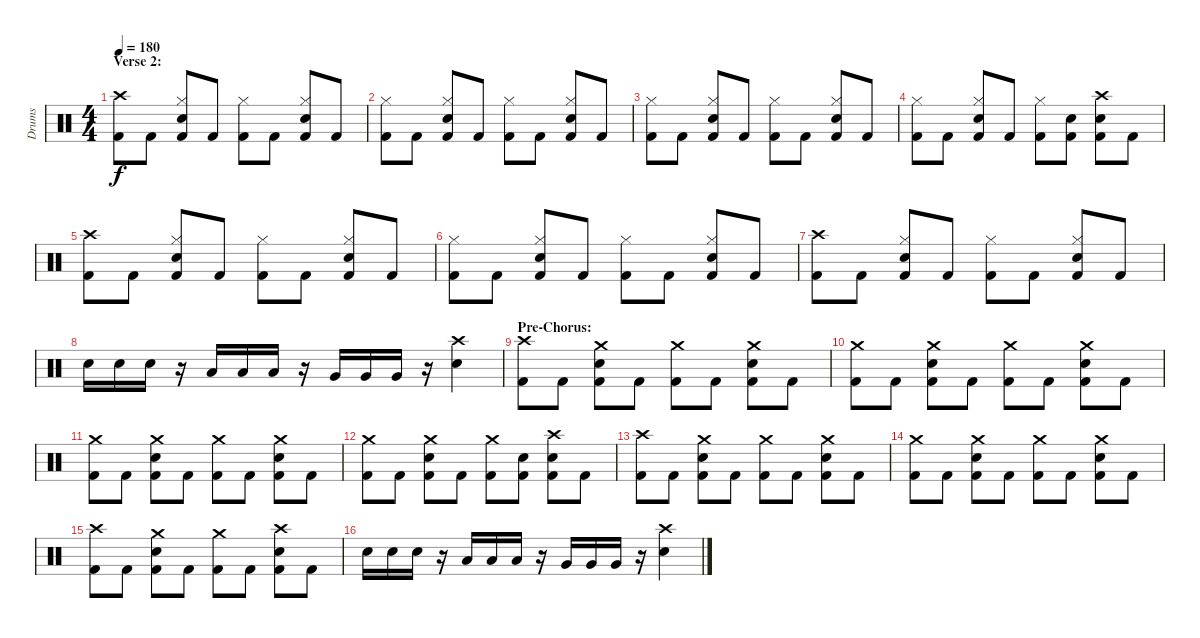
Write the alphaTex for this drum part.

\track ("Drums" "Drums") {instrument percussion}
\staff {score}
\articulation defaults
\ts (4 4)
\section ("" "Verse 2:")
\tempo 180
\clef neutral
\ks c
("Crash high (hit)" "Kick (hit) 2").8{dy f} "Kick (hit) 2".8 ("Hi-Hat (closed)" "Electric Snare (hit)" "Kick (hit) 2").8 "Kick (hit) 2".8 ("Hi-Hat (closed)" "Kick (hit) 2").8 "Kick (hit) 2".8 ("Hi-Hat (closed)" "Electric Snare (hit)" "Kick (hit) 2").8 "Kick (hit) 2".8 |
("Hi-Hat (closed)" "Kick (hit) 2").8 "Kick (hit) 2".8 ("Hi-Hat (closed)" "Electric Snare (hit)" "Kick (hit) 2").8 "Kick (hit) 2".8 ("Hi-Hat (closed)" "Kick (hit) 2").8 "Kick (hit) 2".8 ("Hi-Hat (closed)" "Electric Snare (hit)" "Kick (hit) 2").8 "Kick (hit) 2".8 |
("Hi-Hat (closed)" "Kick (hit) 2").8 "Kick (hit) 2".8 ("Hi-Hat (closed)" "Electric Snare (hit)" "Kick (hit) 2").8 "Kick (hit) 2".8 ("Hi-Hat (closed)" "Kick (hit) 2").8 "Kick (hit) 2".8 ("Hi-Hat (closed)" "Electric Snare (hit)" "Kick (hit) 2").8 "Kick (hit) 2".8 |
("Hi-Hat (closed)" "Kick (hit) 2").8 "Kick (hit) 2".8 ("Hi-Hat (closed)" "Electric Snare (hit)" "Kick (hit) 2").8 "Kick (hit) 2".8 ("Hi-Hat (closed)" "Kick (hit) 2").8 ("Electric Snare (hit)" "Kick (hit) 2").8 ("Crash high (hit)" "Electric Snare (hit)" "Kick (hit) 2").8 "Kick (hit) 2".8 |
("Crash high (hit)" "Kick (hit) 2").8 "Kick (hit) 2".8 ("Hi-Hat (closed)" "Electric Snare (hit)" "Kick (hit) 2").8 "Kick (hit) 2".8 ("Hi-Hat (closed)" "Kick (hit) 2").8 "Kick (hit) 2".8 ("Hi-Hat (closed)" "Electric Snare (hit)" "Kick (hit) 2").8 "Kick (hit) 2".8 |
("Hi-Hat (closed)" "Kick (hit) 2").8 "Kick (hit) 2".8 ("Hi-Hat (closed)" "Electric Snare (hit)" "Kick (hit) 2").8 "Kick (hit) 2".8 ("Hi-Hat (closed)" "Kick (hit) 2").8 "Kick (hit) 2".8 ("Hi-Hat (closed)" "Electric Snare (hit)" "Kick (hit) 2").8 "Kick (hit) 2".8 |
("Crash high (hit)" "Kick (hit) 2").8 "Kick (hit) 2".8 ("Hi-Hat (closed)" "Electric Snare (hit)" "Kick (hit) 2").8 "Kick (hit) 2".8 ("Hi-Hat (closed)" "Kick (hit) 2").8 "Kick (hit) 2".8 ("Hi-Hat (closed)" "Electric Snare (hit)" "Kick (hit) 2").8 "Kick (hit) 2".8 |
"Electric Snare (hit)".16 "Electric Snare (hit)".16 "Electric Snare (hit)".16 r.16 "Low Tom (hit)".16 "Low Tom (hit)".16 "Low Tom (hit)".16 r.16 "Very Low Tom (hit)".16 "Very Low Tom (hit)".16 "Very Low Tom (hit)".16 r.16 ("Crash high (hit)" "Electric Snare (hit)").4 |
\section ("" "Pre-Chorus:")
("Crash high (hit)" "Kick (hit) 2").8 "Kick (hit) 2".8 ("Crash medium (hit)" "Electric Snare (hit)" "Kick (hit) 2").8 "Kick (hit) 2".8 ("Crash medium (hit)" "Kick (hit) 2").8 "Kick (hit) 2".8 ("Crash medium (hit)" "Electric Snare (hit)" "Kick (hit) 2").8 "Kick (hit) 2".8 |
("Crash medium (hit)" "Kick (hit) 2").8 "Kick (hit) 2".8 ("Crash medium (hit)" "Electric Snare (hit)" "Kick (hit) 2").8 "Kick (hit) 2".8 ("Crash medium (hit)" "Kick (hit) 2").8 "Kick (hit) 2".8 ("Crash medium (hit)" "Electric Snare (hit)" "Kick (hit) 2").8 "Kick (hit) 2".8 |
("Crash medium (hit)" "Kick (hit) 2").8 "Kick (hit) 2".8 ("Crash medium (hit)" "Electric Snare (hit)" "Kick (hit) 2").8 "Kick (hit) 2".8 ("Crash medium (hit)" "Kick (hit) 2").8 "Kick (hit) 2".8 ("Crash medium (hit)" "Electric Snare (hit)" "Kick (hit) 2").8 "Kick (hit) 2".8 |
("Crash medium (hit)" "Kick (hit) 2").8 "Kick (hit) 2".8 ("Crash medium (hit)" "Electric Snare (hit)" "Kick (hit) 2").8 "Kick (hit) 2".8 ("Crash medium (hit)" "Kick (hit) 2").8 ("Electric Snare (hit)" "Kick (hit) 2").8 ("Crash high (hit)" "Electric Snare (hit)" "Kick (hit) 2").8 "Kick (hit) 2".8 |
("Crash high (hit)" "Kick (hit) 2").8 "Kick (hit) 2".8 ("Crash medium (hit)" "Electric Snare (hit)" "Kick (hit) 2").8 "Kick (hit) 2".8 ("Crash medium (hit)" "Kick (hit) 2").8 "Kick (hit) 2".8 ("Crash medium (hit)" "Electric Snare (hit)" "Kick (hit) 2").8 "Kick (hit) 2".8 |
("Crash medium (hit)" "Kick (hit) 2").8 "Kick (hit) 2".8 ("Crash medium (hit)" "Electric Snare (hit)" "Kick (hit) 2").8 "Kick (hit) 2".8 ("Crash medium (hit)" "Kick (hit) 2").8 "Kick (hit) 2".8 ("Crash medium (hit)" "Electric Snare (hit)" "Kick (hit) 2").8 "Kick (hit) 2".8 |
("Crash high (hit)" "Kick (hit) 2").8 "Kick (hit) 2".8 ("Crash medium (hit)" "Electric Snare (hit)" "Kick (hit) 2").8 "Kick (hit) 2".8 ("Crash medium (hit)" "Kick (hit) 2").8 "Kick (hit) 2".8 ("Crash high (hit)" "Electric Snare (hit)" "Kick (hit) 2").8 "Kick (hit) 2".8 |
"Electric Snare (hit)".16 "Electric Snare (hit)".16 "Electric Snare (hit)".16 r.16 "Low Tom (hit)".16 "Low Tom (hit)".16 "Low Tom (hit)".16 r.16 "Very Low Tom (hit)".16 "Very Low Tom (hit)".16 "Very Low Tom (hit)".16 r.16 ("Crash high (hit)" "Electric Snare (hit)").4
